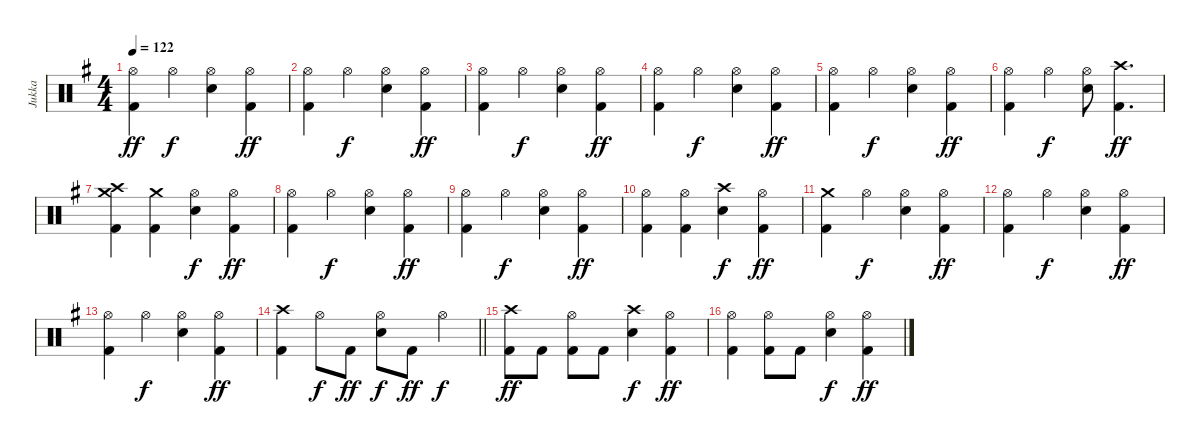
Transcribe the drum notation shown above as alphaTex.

\track ("Jukka" "Jukka") {instrument percussion}
\staff {score}
\articulation defaults
\ts (4 4)
\tempo 122
\clef neutral
\ks g
("Hi-Hat (open)" "Kick (hit) 2").4{dy ff} "Hi-Hat (open)".4{dy f} ("Hi-Hat (open)" "Electric Snare (hit)").4 ("Hi-Hat (open)" "Kick (hit) 2").4{dy ff} |
("Hi-Hat (open)" "Kick (hit) 2").4 "Hi-Hat (open)".4{dy f} ("Hi-Hat (open)" "Electric Snare (hit)").4 ("Hi-Hat (open)" "Kick (hit) 2").4{dy ff} |
("Hi-Hat (open)" "Kick (hit) 2").4 "Hi-Hat (open)".4{dy f} ("Hi-Hat (open)" "Electric Snare (hit)").4 ("Hi-Hat (open)" "Kick (hit) 2").4{dy ff} |
("Hi-Hat (open)" "Kick (hit) 2").4 "Hi-Hat (open)".4{dy f} ("Hi-Hat (open)" "Electric Snare (hit)").4 ("Hi-Hat (open)" "Kick (hit) 2").4{dy ff} |
("Hi-Hat (open)" "Kick (hit) 2").4 "Hi-Hat (open)".4{dy f} ("Hi-Hat (open)" "Electric Snare (hit)").4 ("Hi-Hat (open)" "Kick (hit) 2").4{dy ff} |
("Hi-Hat (open)" "Kick (hit) 2").4 "Hi-Hat (open)".4{dy f} ("Hi-Hat (open)" "Electric Snare (hit)").8 ("Crash high (hit)" "Kick (hit) 2").4{d dy ff} |
("Crash high (hit)" "Crash medium (hit)" "Kick (hit) 2").4 ("Crash medium (hit)" "Kick (hit) 2").4 ("Hi-Hat (open)" "Electric Snare (hit)").4{dy f} ("Hi-Hat (open)" "Kick (hit) 2").4{dy ff} |
("Hi-Hat (open)" "Kick (hit) 2").4 "Hi-Hat (open)".4{dy f} ("Hi-Hat (open)" "Electric Snare (hit)").4 ("Hi-Hat (open)" "Kick (hit) 2").4{dy ff} |
("Hi-Hat (open)" "Kick (hit) 2").4 "Hi-Hat (open)".4{dy f} ("Hi-Hat (open)" "Electric Snare (hit)").4 ("Hi-Hat (open)" "Kick (hit) 2").4{dy ff} |
("Hi-Hat (open)" "Kick (hit) 2").4 ("Hi-Hat (open)" "Kick (hit) 2").4 ("Crash high (hit)" "Electric Snare (hit)").4{dy f} ("Hi-Hat (open)" "Kick (hit) 2").4{dy ff} |
("Crash medium (hit)" "Kick (hit) 2").4 "Hi-Hat (open)".4{dy f} ("Hi-Hat (open)" "Electric Snare (hit)").4 ("Hi-Hat (open)" "Kick (hit) 2").4{dy ff} |
("Hi-Hat (open)" "Kick (hit) 2").4 "Hi-Hat (open)".4{dy f} ("Hi-Hat (open)" "Electric Snare (hit)").4 ("Hi-Hat (open)" "Kick (hit) 2").4{dy ff} |
("Hi-Hat (open)" "Kick (hit) 2").4 "Hi-Hat (open)".4{dy f} ("Hi-Hat (open)" "Electric Snare (hit)").4 ("Hi-Hat (open)" "Kick (hit) 2").4{dy ff} |
\barLineRight lightlight
("Crash high (hit)" "Kick (hit) 2").4 "Hi-Hat (open)".8{dy f} "Kick (hit) 2".8{dy ff} ("Hi-Hat (open)" "Electric Snare (hit)").8{dy f} "Kick (hit) 2".8{dy ff} "Hi-Hat (open)".4{dy f} |
("Crash high (hit)" "Kick (hit) 2").8{dy ff} "Kick (hit) 2".8 ("Hi-Hat (open)" "Kick (hit) 2").8 "Kick (hit) 2".8 ("Crash high (hit)" "Electric Snare (hit)").4{dy f} ("Hi-Hat (open)" "Kick (hit) 2").4{dy ff} |
("Hi-Hat (open)" "Kick (hit) 2").4 ("Hi-Hat (open)" "Kick (hit) 2").8 "Kick (hit) 2".8 ("Hi-Hat (open)" "Electric Snare (hit)").4{dy f} ("Hi-Hat (open)" "Kick (hit) 2").4{dy ff}
